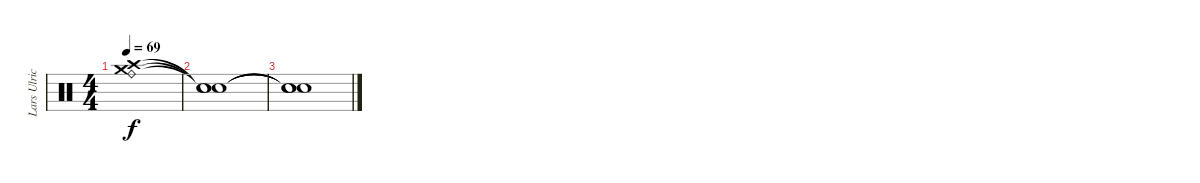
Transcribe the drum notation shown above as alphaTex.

\track ("Lars Ulrich" "Lars Ulric") {instrument percussion}
\staff {score}
\articulation defaults
\ts (4 4)
\tempo 69
\clef neutral
\ks c
("Ride (bell)" "Crash medium (hit)" "Crash high (hit)").1{dy f} |
("Snare (hit)"{t} "Snare (hit)"{t} "Snare (hit)"{t}).1 |
("Snare (hit)"{t} "Snare (hit)"{t} "Snare (hit)"{t}).1
